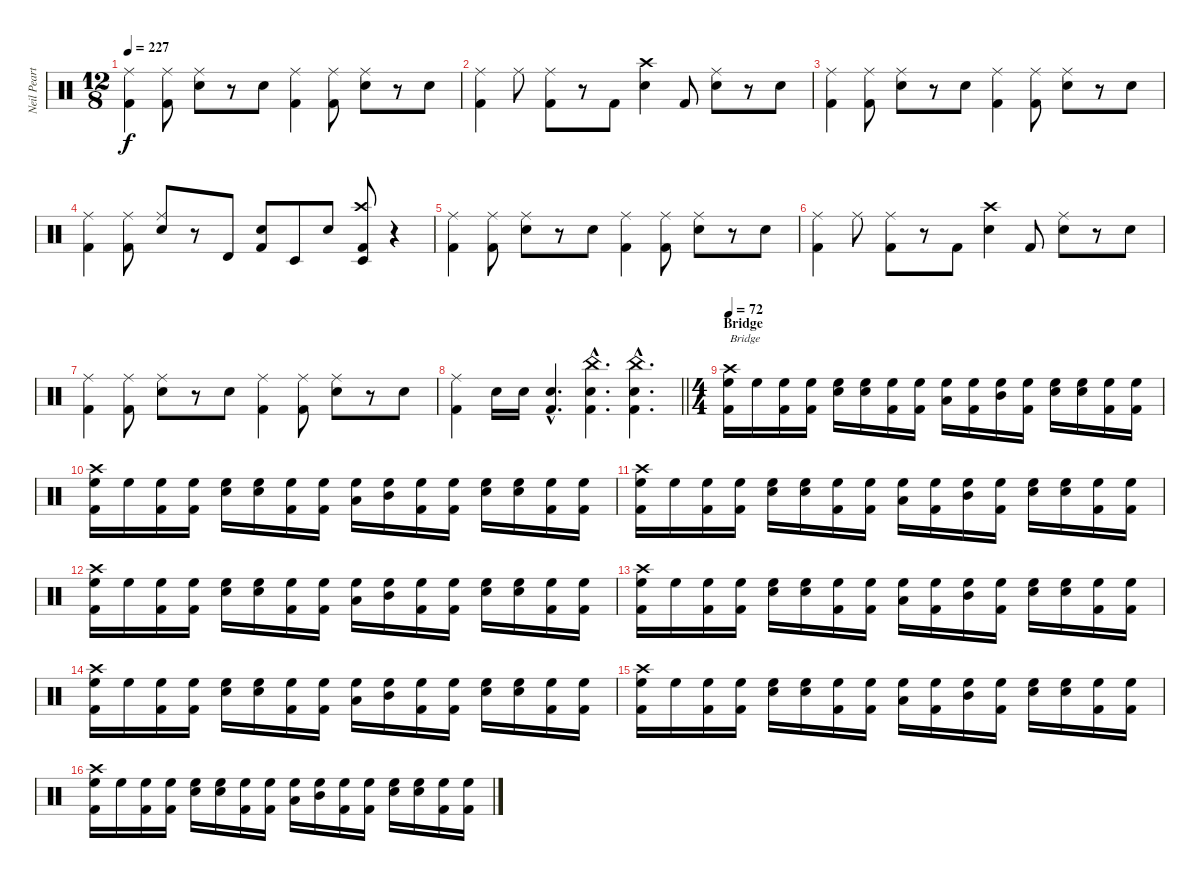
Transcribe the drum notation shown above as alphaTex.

\track ("Neil Peart" "Neil Peart") {instrument percussion}
\staff {score}
\articulation defaults
\ts (12 8)
\tempo 227
\clef neutral
\ks c
("Ride (middle)" "Kick (hit) 2").4{dy f} ("Ride (middle)" "Kick (hit) 2").8 ("Electric Snare (hit)" "Ride (middle)").8 r.8 "Electric Snare (hit)".8 ("Ride (middle)" "Kick (hit) 2").4 ("Ride (middle)" "Kick (hit) 2").8 ("Electric Snare (hit)" "Ride (middle)").8 r.8 "Electric Snare (hit)".8 |
("Ride (middle)" "Kick (hit) 2").4 "Ride (middle)".8 ("Ride (middle)" "Kick (hit) 2").8 r.8 "Kick (hit) 2".8 ("Electric Snare (hit)" "Crash high (hit)").4 "Kick (hit) 2".8 ("Electric Snare (hit)" "Ride (middle)").8 r.8 "Electric Snare (hit)".8 |
("Ride (middle)" "Kick (hit) 2").4 ("Ride (middle)" "Kick (hit) 2").8 ("Electric Snare (hit)" "Ride (middle)").8 r.8 "Electric Snare (hit)".8 ("Ride (middle)" "Kick (hit) 2").4 ("Ride (middle)" "Kick (hit) 2").8 ("Electric Snare (hit)" "Ride (middle)").8 r.8 "Electric Snare (hit)".8 |
("Ride (middle)" "Kick (hit) 2").4 ("Ride (middle)" "Kick (hit) 2").8 ("Electric Snare (hit)" "Ride (middle)").8 r.8 "Timbale high (hit)".8 ("Electric Snare (hit)" "Kick (hit) 2").8 "Timbale low (hit)".8 "Electric Snare (hit)".8 ("Crash high (hit)" "Kick (hit) 2" "Timbale low (hit)").8 r.4 |
("Ride (middle)" "Kick (hit) 2").4 ("Ride (middle)" "Kick (hit) 2").8 ("Electric Snare (hit)" "Ride (middle)").8 r.8 "Electric Snare (hit)".8 ("Ride (middle)" "Kick (hit) 2").4 ("Ride (middle)" "Kick (hit) 2").8 ("Electric Snare (hit)" "Ride (middle)").8 r.8 "Electric Snare (hit)".8 |
("Ride (middle)" "Kick (hit) 2").4 "Ride (middle)".8 ("Ride (middle)" "Kick (hit) 2").8 r.8 "Kick (hit) 2".8 ("Electric Snare (hit)" "Crash high (hit)").4 "Kick (hit) 2".8 ("Electric Snare (hit)" "Ride (middle)").8 r.8 "Electric Snare (hit)".8 |
("Ride (middle)" "Kick (hit) 2").4 ("Ride (middle)" "Kick (hit) 2").8 ("Electric Snare (hit)" "Ride (middle)").8 r.8 "Electric Snare (hit)".8 ("Ride (middle)" "Kick (hit) 2").4 ("Ride (middle)" "Kick (hit) 2").8 ("Electric Snare (hit)" "Ride (middle)").8 r.8 "Electric Snare (hit)".8 |
\barLineRight lightlight
("Ride (middle)" "Kick (hit) 2").4 "Electric Snare (hit)".16 "Electric Snare (hit)".16 ("Electric Snare (hit)"{hac} "Kick (hit) 2"{hac}).4{d} ("Electric Snare (hit)"{hac} "China (hit)"{hac} "Kick (hit) 2"{hac}).4{d} ("Electric Snare (hit)"{hac} "China (hit)"{hac} "Kick (hit) 2"{hac}).4{d} |
\ts (4 4)
\section ("" "Bridge")
\tempo 72
("Crash high (hit)" "Kick (hit) 2" "High Floor Tom (hit)").16{txt "Bridge"} "High Floor Tom (hit)".16 ("Kick (hit) 2" "High Floor Tom (hit)").16 ("Kick (hit) 2" "High Floor Tom (hit)").16 ("Electric Snare (hit)" "High Floor Tom (hit)").16 ("Electric Snare (hit)" "High Floor Tom (hit)").16 ("Kick (hit) 2" "High Floor Tom (hit)").16 ("Kick (hit) 2" "High Floor Tom (hit)").16 ("Low Tom (hit)" "High Floor Tom (hit)").16 ("Kick (hit) 2" "High Floor Tom (hit)").16 ("Mid Tom (hit)" "High Floor Tom (hit)").16 ("Kick (hit) 2" "High Floor Tom (hit)").16 ("Electric Snare (hit)" "High Floor Tom (hit)").16 ("Electric Snare (hit)" "High Floor Tom (hit)").16 ("Kick (hit) 2" "High Floor Tom (hit)").16 ("Kick (hit) 2" "High Floor Tom (hit)").16 |
("Crash high (hit)" "Kick (hit) 2" "High Floor Tom (hit)").16 "High Floor Tom (hit)".16 ("Kick (hit) 2" "High Floor Tom (hit)").16 ("Kick (hit) 2" "High Floor Tom (hit)").16 ("Electric Snare (hit)" "High Floor Tom (hit)").16 ("Electric Snare (hit)" "High Floor Tom (hit)").16 ("Kick (hit) 2" "High Floor Tom (hit)").16 ("Kick (hit) 2" "High Floor Tom (hit)").16 ("Low Tom (hit)" "High Floor Tom (hit)").16 ("Mid Tom (hit)" "High Floor Tom (hit)").16 ("Kick (hit) 2" "High Floor Tom (hit)").16 ("Kick (hit) 2" "High Floor Tom (hit)").16 ("Electric Snare (hit)" "High Floor Tom (hit)").16 ("Electric Snare (hit)" "High Floor Tom (hit)").16 ("Kick (hit) 2" "High Floor Tom (hit)").16 ("Kick (hit) 2" "High Floor Tom (hit)").16 |
("Crash high (hit)" "Kick (hit) 2" "High Floor Tom (hit)").16 "High Floor Tom (hit)".16 ("Kick (hit) 2" "High Floor Tom (hit)").16 ("Kick (hit) 2" "High Floor Tom (hit)").16 ("Electric Snare (hit)" "High Floor Tom (hit)").16 ("Electric Snare (hit)" "High Floor Tom (hit)").16 ("Kick (hit) 2" "High Floor Tom (hit)").16 ("Kick (hit) 2" "High Floor Tom (hit)").16 ("Low Tom (hit)" "High Floor Tom (hit)").16 ("Kick (hit) 2" "High Floor Tom (hit)").16 ("Mid Tom (hit)" "High Floor Tom (hit)").16 ("Kick (hit) 2" "High Floor Tom (hit)").16 ("Electric Snare (hit)" "High Floor Tom (hit)").16 ("Electric Snare (hit)" "High Floor Tom (hit)").16 ("Kick (hit) 2" "High Floor Tom (hit)").16 ("Kick (hit) 2" "High Floor Tom (hit)").16 |
("Crash high (hit)" "Kick (hit) 2" "High Floor Tom (hit)").16 "High Floor Tom (hit)".16 ("Kick (hit) 2" "High Floor Tom (hit)").16 ("Kick (hit) 2" "High Floor Tom (hit)").16 ("Electric Snare (hit)" "High Floor Tom (hit)").16 ("Electric Snare (hit)" "High Floor Tom (hit)").16 ("Kick (hit) 2" "High Floor Tom (hit)").16 ("Kick (hit) 2" "High Floor Tom (hit)").16 ("Low Tom (hit)" "High Floor Tom (hit)").16 ("Mid Tom (hit)" "High Floor Tom (hit)").16 ("Kick (hit) 2" "High Floor Tom (hit)").16 ("Kick (hit) 2" "High Floor Tom (hit)").16 ("Electric Snare (hit)" "High Floor Tom (hit)").16 ("Electric Snare (hit)" "High Floor Tom (hit)").16 ("Kick (hit) 2" "High Floor Tom (hit)").16 ("Kick (hit) 2" "High Floor Tom (hit)").16 |
("Crash high (hit)" "Kick (hit) 2" "High Floor Tom (hit)").16 "High Floor Tom (hit)".16 ("Kick (hit) 2" "High Floor Tom (hit)").16 ("Kick (hit) 2" "High Floor Tom (hit)").16 ("Electric Snare (hit)" "High Floor Tom (hit)").16 ("Electric Snare (hit)" "High Floor Tom (hit)").16 ("Kick (hit) 2" "High Floor Tom (hit)").16 ("Kick (hit) 2" "High Floor Tom (hit)").16 ("Low Tom (hit)" "High Floor Tom (hit)").16 ("Kick (hit) 2" "High Floor Tom (hit)").16 ("Mid Tom (hit)" "High Floor Tom (hit)").16 ("Kick (hit) 2" "High Floor Tom (hit)").16 ("Electric Snare (hit)" "High Floor Tom (hit)").16 ("Electric Snare (hit)" "High Floor Tom (hit)").16 ("Kick (hit) 2" "High Floor Tom (hit)").16 ("Kick (hit) 2" "High Floor Tom (hit)").16 |
("Crash high (hit)" "Kick (hit) 2" "High Floor Tom (hit)").16 "High Floor Tom (hit)".16 ("Kick (hit) 2" "High Floor Tom (hit)").16 ("Kick (hit) 2" "High Floor Tom (hit)").16 ("Electric Snare (hit)" "High Floor Tom (hit)").16 ("Electric Snare (hit)" "High Floor Tom (hit)").16 ("Kick (hit) 2" "High Floor Tom (hit)").16 ("Kick (hit) 2" "High Floor Tom (hit)").16 ("Low Tom (hit)" "High Floor Tom (hit)").16 ("Mid Tom (hit)" "High Floor Tom (hit)").16 ("Kick (hit) 2" "High Floor Tom (hit)").16 ("Kick (hit) 2" "High Floor Tom (hit)").16 ("Electric Snare (hit)" "High Floor Tom (hit)").16 ("Electric Snare (hit)" "High Floor Tom (hit)").16 ("Kick (hit) 2" "High Floor Tom (hit)").16 ("Kick (hit) 2" "High Floor Tom (hit)").16 |
("Crash high (hit)" "Kick (hit) 2" "High Floor Tom (hit)").16 "High Floor Tom (hit)".16 ("Kick (hit) 2" "High Floor Tom (hit)").16 ("Kick (hit) 2" "High Floor Tom (hit)").16 ("Electric Snare (hit)" "High Floor Tom (hit)").16 ("Electric Snare (hit)" "High Floor Tom (hit)").16 ("Kick (hit) 2" "High Floor Tom (hit)").16 ("Kick (hit) 2" "High Floor Tom (hit)").16 ("Low Tom (hit)" "High Floor Tom (hit)").16 ("Kick (hit) 2" "High Floor Tom (hit)").16 ("Mid Tom (hit)" "High Floor Tom (hit)").16 ("Kick (hit) 2" "High Floor Tom (hit)").16 ("Electric Snare (hit)" "High Floor Tom (hit)").16 ("Electric Snare (hit)" "High Floor Tom (hit)").16 ("Kick (hit) 2" "High Floor Tom (hit)").16 ("Kick (hit) 2" "High Floor Tom (hit)").16 |
("Crash high (hit)" "Kick (hit) 2" "High Floor Tom (hit)").16 "High Floor Tom (hit)".16 ("Kick (hit) 2" "High Floor Tom (hit)").16 ("Kick (hit) 2" "High Floor Tom (hit)").16 ("Electric Snare (hit)" "High Floor Tom (hit)").16 ("Electric Snare (hit)" "High Floor Tom (hit)").16 ("Kick (hit) 2" "High Floor Tom (hit)").16 ("Kick (hit) 2" "High Floor Tom (hit)").16 ("Low Tom (hit)" "High Floor Tom (hit)").16 ("Mid Tom (hit)" "High Floor Tom (hit)").16 ("Kick (hit) 2" "High Floor Tom (hit)").16 ("Kick (hit) 2" "High Floor Tom (hit)").16 ("Electric Snare (hit)" "High Floor Tom (hit)").16 ("Electric Snare (hit)" "High Floor Tom (hit)").16 ("Kick (hit) 2" "High Floor Tom (hit)").16 ("Kick (hit) 2" "High Floor Tom (hit)").16
